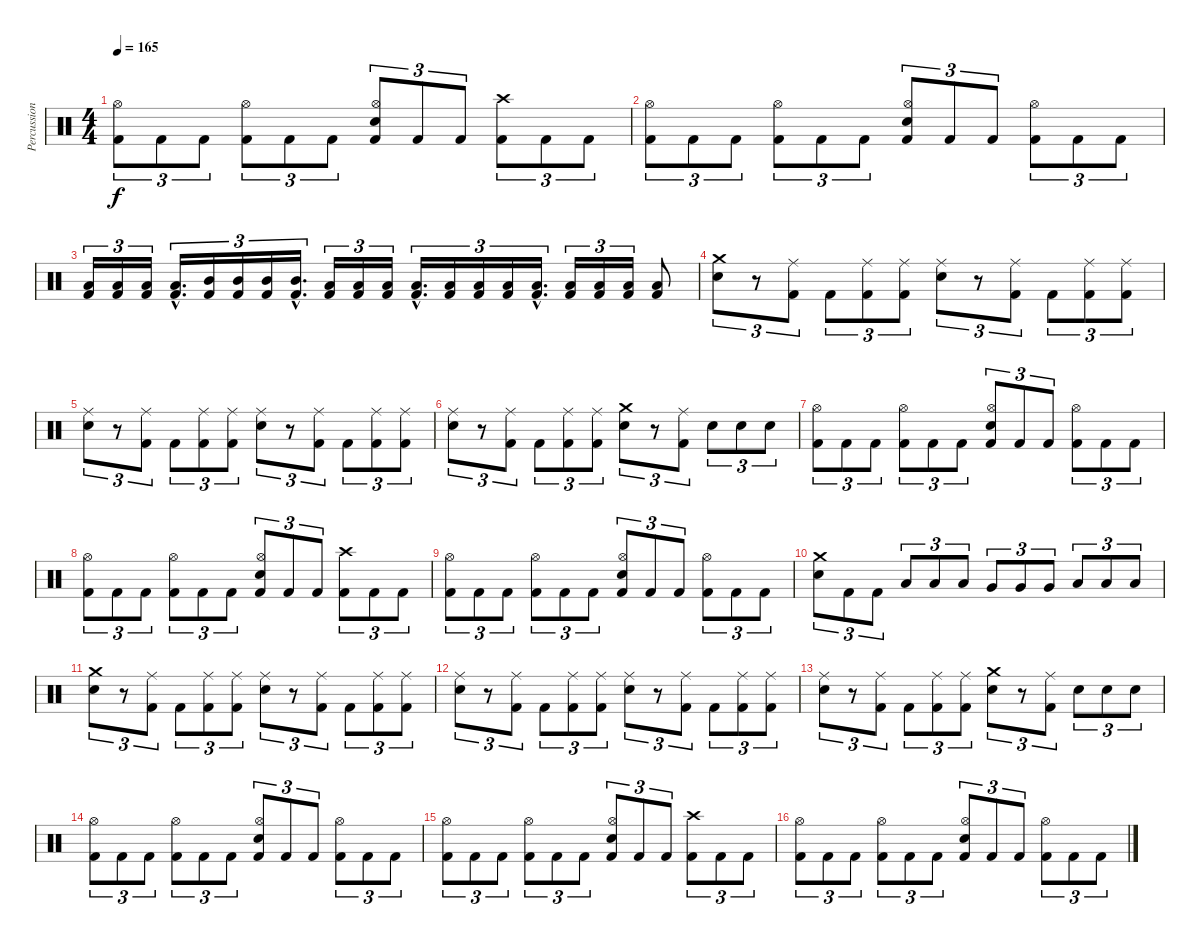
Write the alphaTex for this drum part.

\track ("Percussion" "Percussion") {instrument percussion}
\staff {score}
\articulation defaults
\ts (4 4)
\tempo 165
\clef neutral
\ks c
("Kick (hit) 2" "Hi-Hat (open)").8{tu (3 2) dy f} "Kick (hit) 2".8{tu (3 2)} "Kick (hit) 2".8{tu (3 2)} ("Kick (hit) 2" "Hi-Hat (open)").8{tu (3 2)} "Kick (hit) 2".8{tu (3 2)} "Kick (hit) 2".8{tu (3 2)} ("Kick (hit) 2" "Hi-Hat (open)" "Snare (hit) 2").8{tu (3 2)} "Kick (hit) 2".8{tu (3 2)} "Kick (hit) 2".8{tu (3 2)} ("Kick (hit) 2" "Crash high (hit)").8{tu (3 2)} "Kick (hit) 2".8{tu (3 2)} "Kick (hit) 2".8{tu (3 2)} |
("Kick (hit) 2" "Hi-Hat (open)").8{tu (3 2)} "Kick (hit) 2".8{tu (3 2)} "Kick (hit) 2".8{tu (3 2)} ("Kick (hit) 2" "Hi-Hat (open)").8{tu (3 2)} "Kick (hit) 2".8{tu (3 2)} "Kick (hit) 2".8{tu (3 2)} ("Kick (hit) 2" "Hi-Hat (open)" "Snare (hit) 2").8{tu (3 2)} "Kick (hit) 2".8{tu (3 2)} "Kick (hit) 2".8{tu (3 2)} ("Kick (hit) 2" "Hi-Hat (open)").8{tu (3 2)} "Kick (hit) 2".8{tu (3 2)} "Kick (hit) 2".8{tu (3 2)} |
("Low Tom (hit)" "Kick (hit) 2").16{tu (3 2)} ("Low Tom (hit)" "Kick (hit) 2").16{tu (3 2)} ("Low Tom (hit)" "Kick (hit) 2").16{tu (3 2)} ("Low Tom (hit)"{hac} "Kick (hit) 2"{hac}).16{d tu (3 2)} ("Mid Tom (hit)" "Kick (hit) 2").16{tu (3 2)} ("Mid Tom (hit)" "Kick (hit) 2").16{tu (3 2)} ("Mid Tom (hit)" "Kick (hit) 2").16{tu (3 2)} ("Mid Tom (hit)"{hac} "Kick (hit) 2"{hac}).16{d tu (3 2)} ("Low Tom (hit)" "Kick (hit) 2").16{tu (3 2)} ("Low Tom (hit)" "Kick (hit) 2").16{tu (3 2)} ("Low Tom (hit)" "Kick (hit) 2").16{tu (3 2)} ("Low Tom (hit)"{hac} "Kick (hit) 2"{hac}).16{d tu (3 2)} ("Low Tom (hit)" "Kick (hit) 2").16{tu (3 2)} ("Low Tom (hit)" "Kick (hit) 2").16{tu (3 2)} ("Low Tom (hit)" "Kick (hit) 2").16{tu (3 2)} ("Low Tom (hit)"{hac} "Kick (hit) 2"{hac}).16{d tu (3 2)} ("Low Tom (hit)" "Kick (hit) 2").16{tu (3 2)} ("Low Tom (hit)" "Kick (hit) 2").16{tu (3 2)} ("Low Tom (hit)" "Kick (hit) 2").16{tu (3 2)} ("Low Tom (hit)" "Kick (hit) 2").8 |
("Snare (hit) 2" "Crash medium (hit)").8{tu (3 2)} r.8{tu (3 2)} ("Kick (hit) 2" "Ride (middle)").8{tu (3 2)} "Kick (hit) 2".8{tu (3 2)} ("Kick (hit) 2" "Ride (middle)").8{tu (3 2)} ("Kick (hit) 2" "Ride (middle)").8{tu (3 2)} ("Snare (hit) 2" "Ride (middle)").8{tu (3 2)} r.8{tu (3 2)} ("Kick (hit) 2" "Ride (middle)").8{tu (3 2)} "Kick (hit) 2".8{tu (3 2)} ("Kick (hit) 2" "Ride (middle)").8{tu (3 2)} ("Kick (hit) 2" "Ride (middle)").8{tu (3 2)} |
("Snare (hit) 2" "Ride (middle)").8{tu (3 2)} r.8{tu (3 2)} ("Kick (hit) 2" "Ride (middle)").8{tu (3 2)} "Kick (hit) 2".8{tu (3 2)} ("Kick (hit) 2" "Ride (middle)").8{tu (3 2)} ("Kick (hit) 2" "Ride (middle)").8{tu (3 2)} ("Snare (hit) 2" "Ride (middle)").8{tu (3 2)} r.8{tu (3 2)} ("Kick (hit) 2" "Ride (middle)").8{tu (3 2)} "Kick (hit) 2".8{tu (3 2)} ("Kick (hit) 2" "Ride (middle)").8{tu (3 2)} ("Kick (hit) 2" "Ride (middle)").8{tu (3 2)} |
("Snare (hit) 2" "Ride (middle)").8{tu (3 2)} r.8{tu (3 2)} ("Kick (hit) 2" "Ride (middle)").8{tu (3 2)} "Kick (hit) 2".8{tu (3 2)} ("Kick (hit) 2" "Ride (middle)").8{tu (3 2)} ("Kick (hit) 2" "Ride (middle)").8{tu (3 2)} ("Snare (hit) 2" "Crash medium (hit)").8{tu (3 2)} r.8{tu (3 2)} ("Kick (hit) 2" "Ride (middle)").8{tu (3 2)} "Snare (hit) 2".8{tu (3 2)} "Snare (hit) 2".8{tu (3 2)} "Snare (hit) 2".8{tu (3 2)} |
("Kick (hit) 2" "Hi-Hat (open)").8{tu (3 2)} "Kick (hit) 2".8{tu (3 2)} "Kick (hit) 2".8{tu (3 2)} ("Kick (hit) 2" "Hi-Hat (open)").8{tu (3 2)} "Kick (hit) 2".8{tu (3 2)} "Kick (hit) 2".8{tu (3 2)} ("Kick (hit) 2" "Hi-Hat (open)" "Snare (hit) 2").8{tu (3 2)} "Kick (hit) 2".8{tu (3 2)} "Kick (hit) 2".8{tu (3 2)} ("Kick (hit) 2" "Hi-Hat (open)").8{tu (3 2)} "Kick (hit) 2".8{tu (3 2)} "Kick (hit) 2".8{tu (3 2)} |
("Kick (hit) 2" "Hi-Hat (open)").8{tu (3 2)} "Kick (hit) 2".8{tu (3 2)} "Kick (hit) 2".8{tu (3 2)} ("Kick (hit) 2" "Hi-Hat (open)").8{tu (3 2)} "Kick (hit) 2".8{tu (3 2)} "Kick (hit) 2".8{tu (3 2)} ("Kick (hit) 2" "Hi-Hat (open)" "Snare (hit) 2").8{tu (3 2)} "Kick (hit) 2".8{tu (3 2)} "Kick (hit) 2".8{tu (3 2)} ("Kick (hit) 2" "Crash high (hit)").8{tu (3 2)} "Kick (hit) 2".8{tu (3 2)} "Kick (hit) 2".8{tu (3 2)} |
("Kick (hit) 2" "Hi-Hat (open)").8{tu (3 2)} "Kick (hit) 2".8{tu (3 2)} "Kick (hit) 2".8{tu (3 2)} ("Kick (hit) 2" "Hi-Hat (open)").8{tu (3 2)} "Kick (hit) 2".8{tu (3 2)} "Kick (hit) 2".8{tu (3 2)} ("Kick (hit) 2" "Hi-Hat (open)" "Snare (hit) 2").8{tu (3 2)} "Kick (hit) 2".8{tu (3 2)} "Kick (hit) 2".8{tu (3 2)} ("Kick (hit) 2" "Hi-Hat (open)").8{tu (3 2)} "Kick (hit) 2".8{tu (3 2)} "Kick (hit) 2".8{tu (3 2)} |
("Snare (hit) 2" "Crash medium (hit)").8{tu (3 2)} "Kick (hit) 2".8{tu (3 2)} "Kick (hit) 2".8{tu (3 2)} "Low Tom (hit)".8{tu (3 2)} "Low Tom (hit)".8{tu (3 2)} "Low Tom (hit)".8{tu (3 2)} "Very Low Tom (hit)".8{tu (3 2)} "Very Low Tom (hit)".8{tu (3 2)} "Very Low Tom (hit)".8{tu (3 2)} "Low Floor Tom (hit)".8{tu (3 2)} "Low Floor Tom (hit)".8{tu (3 2)} "Low Floor Tom (hit)".8{tu (3 2)} |
("Snare (hit) 2" "Crash medium (hit)").8{tu (3 2)} r.8{tu (3 2)} ("Kick (hit) 2" "Ride (middle)").8{tu (3 2)} "Kick (hit) 2".8{tu (3 2)} ("Kick (hit) 2" "Ride (middle)").8{tu (3 2)} ("Kick (hit) 2" "Ride (middle)").8{tu (3 2)} ("Snare (hit) 2" "Ride (middle)").8{tu (3 2)} r.8{tu (3 2)} ("Kick (hit) 2" "Ride (middle)").8{tu (3 2)} "Kick (hit) 2".8{tu (3 2)} ("Kick (hit) 2" "Ride (middle)").8{tu (3 2)} ("Kick (hit) 2" "Ride (middle)").8{tu (3 2)} |
("Snare (hit) 2" "Ride (middle)").8{tu (3 2)} r.8{tu (3 2)} ("Kick (hit) 2" "Ride (middle)").8{tu (3 2)} "Kick (hit) 2".8{tu (3 2)} ("Kick (hit) 2" "Ride (middle)").8{tu (3 2)} ("Kick (hit) 2" "Ride (middle)").8{tu (3 2)} ("Snare (hit) 2" "Ride (middle)").8{tu (3 2)} r.8{tu (3 2)} ("Kick (hit) 2" "Ride (middle)").8{tu (3 2)} "Kick (hit) 2".8{tu (3 2)} ("Kick (hit) 2" "Ride (middle)").8{tu (3 2)} ("Kick (hit) 2" "Ride (middle)").8{tu (3 2)} |
("Snare (hit) 2" "Ride (middle)").8{tu (3 2)} r.8{tu (3 2)} ("Kick (hit) 2" "Ride (middle)").8{tu (3 2)} "Kick (hit) 2".8{tu (3 2)} ("Kick (hit) 2" "Ride (middle)").8{tu (3 2)} ("Kick (hit) 2" "Ride (middle)").8{tu (3 2)} ("Snare (hit) 2" "Crash medium (hit)").8{tu (3 2)} r.8{tu (3 2)} ("Kick (hit) 2" "Ride (middle)").8{tu (3 2)} "Snare (hit) 2".8{tu (3 2)} "Snare (hit) 2".8{tu (3 2)} "Snare (hit) 2".8{tu (3 2)} |
("Kick (hit) 2" "Hi-Hat (open)").8{tu (3 2)} "Kick (hit) 2".8{tu (3 2)} "Kick (hit) 2".8{tu (3 2)} ("Kick (hit) 2" "Hi-Hat (open)").8{tu (3 2)} "Kick (hit) 2".8{tu (3 2)} "Kick (hit) 2".8{tu (3 2)} ("Kick (hit) 2" "Hi-Hat (open)" "Snare (hit) 2").8{tu (3 2)} "Kick (hit) 2".8{tu (3 2)} "Kick (hit) 2".8{tu (3 2)} ("Kick (hit) 2" "Hi-Hat (open)").8{tu (3 2)} "Kick (hit) 2".8{tu (3 2)} "Kick (hit) 2".8{tu (3 2)} |
("Kick (hit) 2" "Hi-Hat (open)").8{tu (3 2)} "Kick (hit) 2".8{tu (3 2)} "Kick (hit) 2".8{tu (3 2)} ("Kick (hit) 2" "Hi-Hat (open)").8{tu (3 2)} "Kick (hit) 2".8{tu (3 2)} "Kick (hit) 2".8{tu (3 2)} ("Kick (hit) 2" "Hi-Hat (open)" "Snare (hit) 2").8{tu (3 2)} "Kick (hit) 2".8{tu (3 2)} "Kick (hit) 2".8{tu (3 2)} ("Kick (hit) 2" "Crash high (hit)").8{tu (3 2)} "Kick (hit) 2".8{tu (3 2)} "Kick (hit) 2".8{tu (3 2)} |
("Kick (hit) 2" "Hi-Hat (open)").8{tu (3 2)} "Kick (hit) 2".8{tu (3 2)} "Kick (hit) 2".8{tu (3 2)} ("Kick (hit) 2" "Hi-Hat (open)").8{tu (3 2)} "Kick (hit) 2".8{tu (3 2)} "Kick (hit) 2".8{tu (3 2)} ("Kick (hit) 2" "Hi-Hat (open)" "Snare (hit) 2").8{tu (3 2)} "Kick (hit) 2".8{tu (3 2)} "Kick (hit) 2".8{tu (3 2)} ("Kick (hit) 2" "Hi-Hat (open)").8{tu (3 2)} "Kick (hit) 2".8{tu (3 2)} "Kick (hit) 2".8{tu (3 2)}
